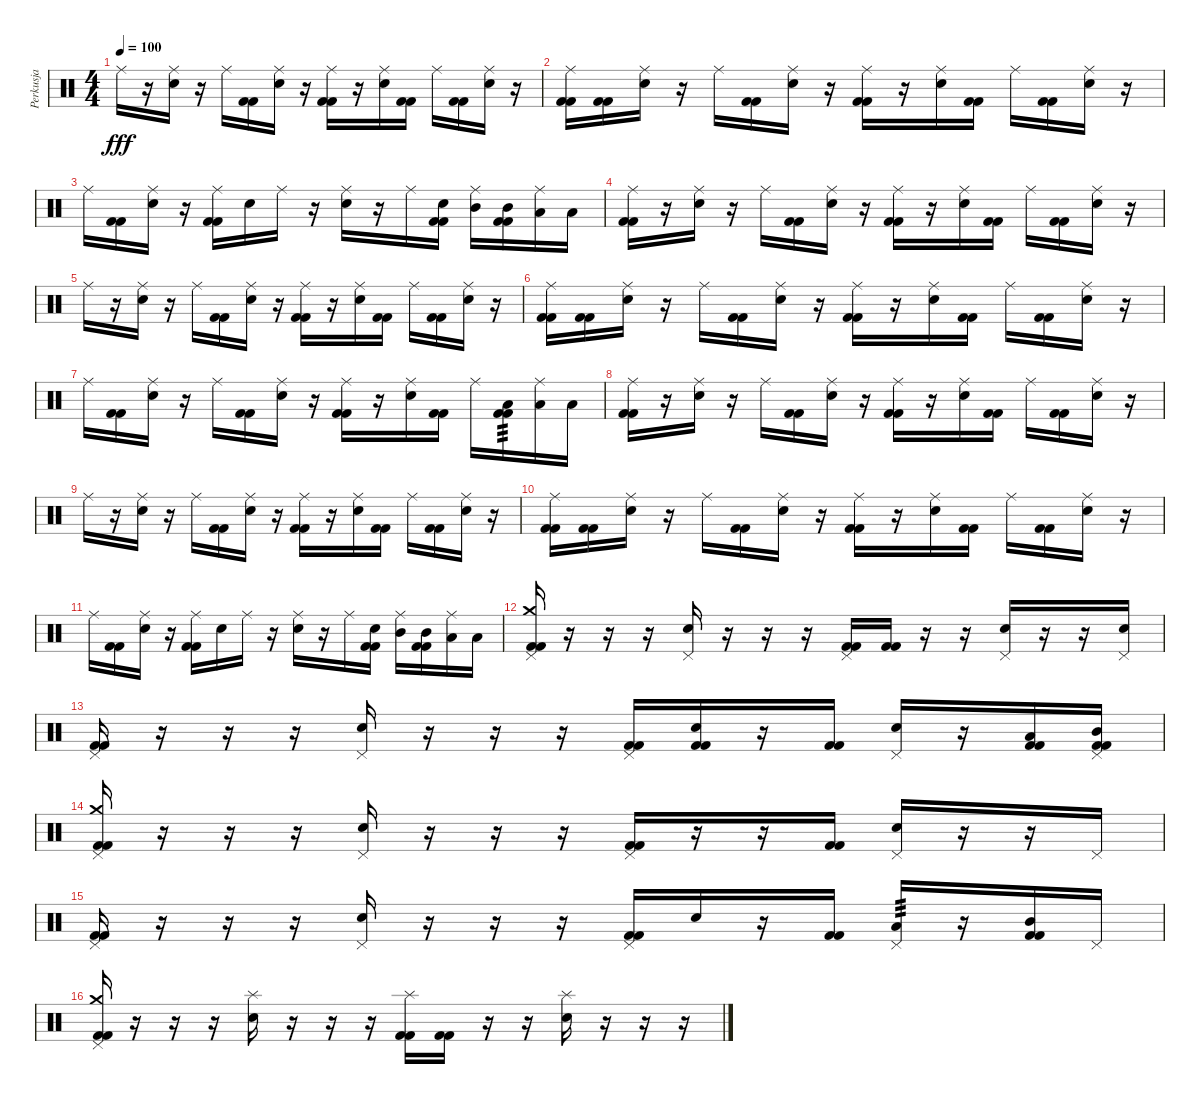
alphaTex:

\track ("Perkusja" "Perkusja") {instrument percussion}
\staff {score}
\articulation defaults
\ts (4 4)
\tempo 100
\clef neutral
\ks c "Ride (middle)".16{dy fff}
r.16 ("Snare (hit) 2" "Ride (middle)").16 r.16 "Ride (middle)".16 ("Kick (hit) 2" "Kick (hit) 2").16 ("Snare (hit) 2" "Ride (middle)").16 r.16 ("Ride (middle)" "Kick (hit) 2" "Kick (hit) 2").16 r.16 ("Snare (hit) 2" "Ride (middle)").16 ("Kick (hit) 2" "Kick (hit) 2").16 "Ride (middle)".16 ("Kick (hit) 2" "Kick (hit) 2").16 ("Snare (hit) 2" "Ride (middle)").16 r.16 |
("Ride (middle)" "Kick (hit) 2" "Kick (hit) 2").16 ("Kick (hit) 2" "Kick (hit) 2").16 ("Snare (hit) 2" "Ride (middle)").16 r.16 "Ride (middle)".16 ("Kick (hit) 2" "Kick (hit) 2").16 ("Snare (hit) 2" "Ride (middle)").16 r.16 ("Ride (middle)" "Kick (hit) 2" "Kick (hit) 2").16 r.16 ("Snare (hit) 2" "Ride (middle)").16 ("Kick (hit) 2" "Kick (hit) 2").16 "Ride (middle)".16 ("Kick (hit) 2" "Kick (hit) 2").16 ("Snare (hit) 2" "Ride (middle)").16 r.16 |
"Ride (middle)".16 ("Kick (hit) 2" "Kick (hit) 2").16 ("Snare (hit) 2" "Ride (middle)").16 r.16 ("Ride (middle)" "Kick (hit) 2" "Kick (hit) 2").16 "Snare (hit) 2".16 "Ride (middle)".16 r.16 ("Snare (hit) 2" "Ride (middle)").16 r.16 "Ride (middle)".16 ("Snare (hit) 2" "Kick (hit) 2" "Kick (hit) 2").16 ("Mid Tom (hit)" "Ride (middle)").16 ("Mid Tom (hit)" "Kick (hit) 2" "Kick (hit) 2").16 ("Low Tom (hit)" "Ride (middle)").16 "Low Tom (hit)".16 |
("Ride (middle)" "Kick (hit) 2" "Kick (hit) 2").16 r.16 ("Snare (hit) 2" "Ride (middle)").16 r.16 "Ride (middle)".16 ("Kick (hit) 2" "Kick (hit) 2").16 ("Snare (hit) 2" "Ride (middle)").16 r.16 ("Ride (middle)" "Kick (hit) 2" "Kick (hit) 2").16 r.16 ("Snare (hit) 2" "Ride (middle)").16 ("Kick (hit) 2" "Kick (hit) 2").16 "Ride (middle)".16 ("Kick (hit) 2" "Kick (hit) 2").16 ("Snare (hit) 2" "Ride (middle)").16 r.16 |
"Ride (middle)".16 r.16 ("Snare (hit) 2" "Ride (middle)").16 r.16 "Ride (middle)".16 ("Kick (hit) 2" "Kick (hit) 2").16 ("Snare (hit) 2" "Ride (middle)").16 r.16 ("Ride (middle)" "Kick (hit) 2" "Kick (hit) 2").16 r.16 ("Snare (hit) 2" "Ride (middle)").16 ("Kick (hit) 2" "Kick (hit) 2").16 "Ride (middle)".16 ("Kick (hit) 2" "Kick (hit) 2").16 ("Snare (hit) 2" "Ride (middle)").16 r.16 |
("Ride (middle)" "Kick (hit) 2" "Kick (hit) 2").16 ("Kick (hit) 2" "Kick (hit) 2").16 ("Snare (hit) 2" "Ride (middle)").16 r.16 "Ride (middle)".16 ("Kick (hit) 2" "Kick (hit) 2").16 ("Snare (hit) 2" "Ride (middle)").16 r.16 ("Ride (middle)" "Kick (hit) 2" "Kick (hit) 2").16 r.16 ("Snare (hit) 2" "Ride (middle)").16 ("Kick (hit) 2" "Kick (hit) 2").16 "Ride (middle)".16 ("Kick (hit) 2" "Kick (hit) 2").16 ("Snare (hit) 2" "Ride (middle)").16 r.16 |
"Ride (middle)".16 ("Kick (hit) 2" "Kick (hit) 2").16 ("Snare (hit) 2" "Ride (middle)").16 r.16 "Ride (middle)".16 ("Kick (hit) 2" "Kick (hit) 2").16 ("Snare (hit) 2" "Ride (middle)").16 r.16 ("Ride (middle)" "Kick (hit) 2" "Kick (hit) 2").16 r.16 ("Snare (hit) 2" "Ride (middle)").16 ("Kick (hit) 2" "Kick (hit) 2").16 "Ride (middle)".16 ("Low Tom (hit)" "Kick (hit) 2" "Kick (hit) 2").16{tp 3} ("Low Tom (hit)" "Ride (middle)").16 "Low Tom (hit)".16 |
("Ride (middle)" "Kick (hit) 2" "Kick (hit) 2").16 r.16 ("Snare (hit) 2" "Ride (middle)").16 r.16 "Ride (middle)".16 ("Kick (hit) 2" "Kick (hit) 2").16 ("Snare (hit) 2" "Ride (middle)").16 r.16 ("Ride (middle)" "Kick (hit) 2" "Kick (hit) 2").16 r.16 ("Snare (hit) 2" "Ride (middle)").16 ("Kick (hit) 2" "Kick (hit) 2").16 "Ride (middle)".16 ("Kick (hit) 2" "Kick (hit) 2").16 ("Snare (hit) 2" "Ride (middle)").16 r.16 |
"Ride (middle)".16 r.16 ("Snare (hit) 2" "Ride (middle)").16 r.16 "Ride (middle)".16 ("Kick (hit) 2" "Kick (hit) 2").16 ("Snare (hit) 2" "Ride (middle)").16 r.16 ("Ride (middle)" "Kick (hit) 2" "Kick (hit) 2").16 r.16 ("Snare (hit) 2" "Ride (middle)").16 ("Kick (hit) 2" "Kick (hit) 2").16 "Ride (middle)".16 ("Kick (hit) 2" "Kick (hit) 2").16 ("Snare (hit) 2" "Ride (middle)").16 r.16 |
("Ride (middle)" "Kick (hit) 2" "Kick (hit) 2").16 ("Kick (hit) 2" "Kick (hit) 2").16 ("Snare (hit) 2" "Ride (middle)").16 r.16 "Ride (middle)".16 ("Kick (hit) 2" "Kick (hit) 2").16 ("Snare (hit) 2" "Ride (middle)").16 r.16 ("Ride (middle)" "Kick (hit) 2" "Kick (hit) 2").16 r.16 ("Snare (hit) 2" "Ride (middle)").16 ("Kick (hit) 2" "Kick (hit) 2").16 "Ride (middle)".16 ("Kick (hit) 2" "Kick (hit) 2").16 ("Snare (hit) 2" "Ride (middle)").16 r.16 |
"Ride (middle)".16 ("Kick (hit) 2" "Kick (hit) 2").16 ("Snare (hit) 2" "Ride (middle)").16 r.16 ("Ride (middle)" "Kick (hit) 2" "Kick (hit) 2").16 "Snare (hit) 2".16 "Ride (middle)".16 r.16 ("Snare (hit) 2" "Ride (middle)").16 r.16 "Ride (middle)".16 ("Snare (hit) 2" "Kick (hit) 2" "Kick (hit) 2").16 ("Mid Tom (hit)" "Ride (middle)").16 ("Mid Tom (hit)" "Kick (hit) 2" "Kick (hit) 2").16 ("Low Tom (hit)" "Ride (middle)").16 "Low Tom (hit)".16 |
("Crash medium (hit)" "Pedal Hi-Hat (hit)" "Kick (hit) 2" "Kick (hit) 2").16 r.16 r.16 r.16 ("Snare (hit) 2" "Pedal Hi-Hat (hit)").16 r.16 r.16 r.16 ("Pedal Hi-Hat (hit)" "Kick (hit) 2" "Kick (hit) 2").16 ("Kick (hit) 2" "Kick (hit) 2").16 r.16 r.16 ("Snare (hit) 2" "Pedal Hi-Hat (hit)").16 r.16 r.16 ("Snare (hit) 2" "Pedal Hi-Hat (hit)").16 |
("Pedal Hi-Hat (hit)" "Kick (hit) 2" "Kick (hit) 2").16 r.16 r.16 r.16 ("Snare (hit) 2" "Pedal Hi-Hat (hit)").16 r.16 r.16 r.16 ("Pedal Hi-Hat (hit)" "Kick (hit) 2" "Kick (hit) 2").16 ("Snare (hit) 2" "Kick (hit) 2" "Kick (hit) 2").16 r.16 ("Kick (hit) 2" "Kick (hit) 2").16 ("Snare (hit) 2" "Pedal Hi-Hat (hit)").16 r.16 ("Low Tom (hit)" "Kick (hit) 2" "Kick (hit) 2").16 ("Mid Tom (hit)" "Pedal Hi-Hat (hit)" "Kick (hit) 2" "Kick (hit) 2").16 |
("Crash medium (hit)" "Pedal Hi-Hat (hit)" "Kick (hit) 2" "Kick (hit) 2").16 r.16 r.16 r.16 ("Snare (hit) 2" "Pedal Hi-Hat (hit)").16 r.16 r.16 r.16 ("Pedal Hi-Hat (hit)" "Kick (hit) 2" "Kick (hit) 2").16 r.16 r.16 ("Kick (hit) 2" "Kick (hit) 2").16 ("Snare (hit) 2" "Pedal Hi-Hat (hit)").16 r.16 r.16 "Pedal Hi-Hat (hit)".16 |
("Pedal Hi-Hat (hit)" "Kick (hit) 2" "Kick (hit) 2").16 r.16 r.16 r.16 ("Snare (hit) 2" "Pedal Hi-Hat (hit)").16 r.16 r.16 r.16 ("Pedal Hi-Hat (hit)" "Kick (hit) 2" "Kick (hit) 2").16 "Snare (hit) 2".16 r.16 ("Kick (hit) 2" "Kick (hit) 2").16 ("Low Tom (hit)" "Pedal Hi-Hat (hit)").16{tp 3} r.16 ("Mid Tom (hit)" "Kick (hit) 2" "Kick (hit) 2").16 "Pedal Hi-Hat (hit)".16 |
("Crash medium (hit)" "Pedal Hi-Hat (hit)" "Kick (hit) 2" "Kick (hit) 2").16 r.16 r.16 r.16 ("Snare (hit) 2" "Splash (hit)").16 r.16 r.16 r.16 ("Splash (hit)" "Kick (hit) 2" "Kick (hit) 2").16 ("Kick (hit) 2" "Kick (hit) 2").16 r.16 r.16 ("Snare (hit) 2" "Splash (hit)").16 r.16 r.16 r.16
